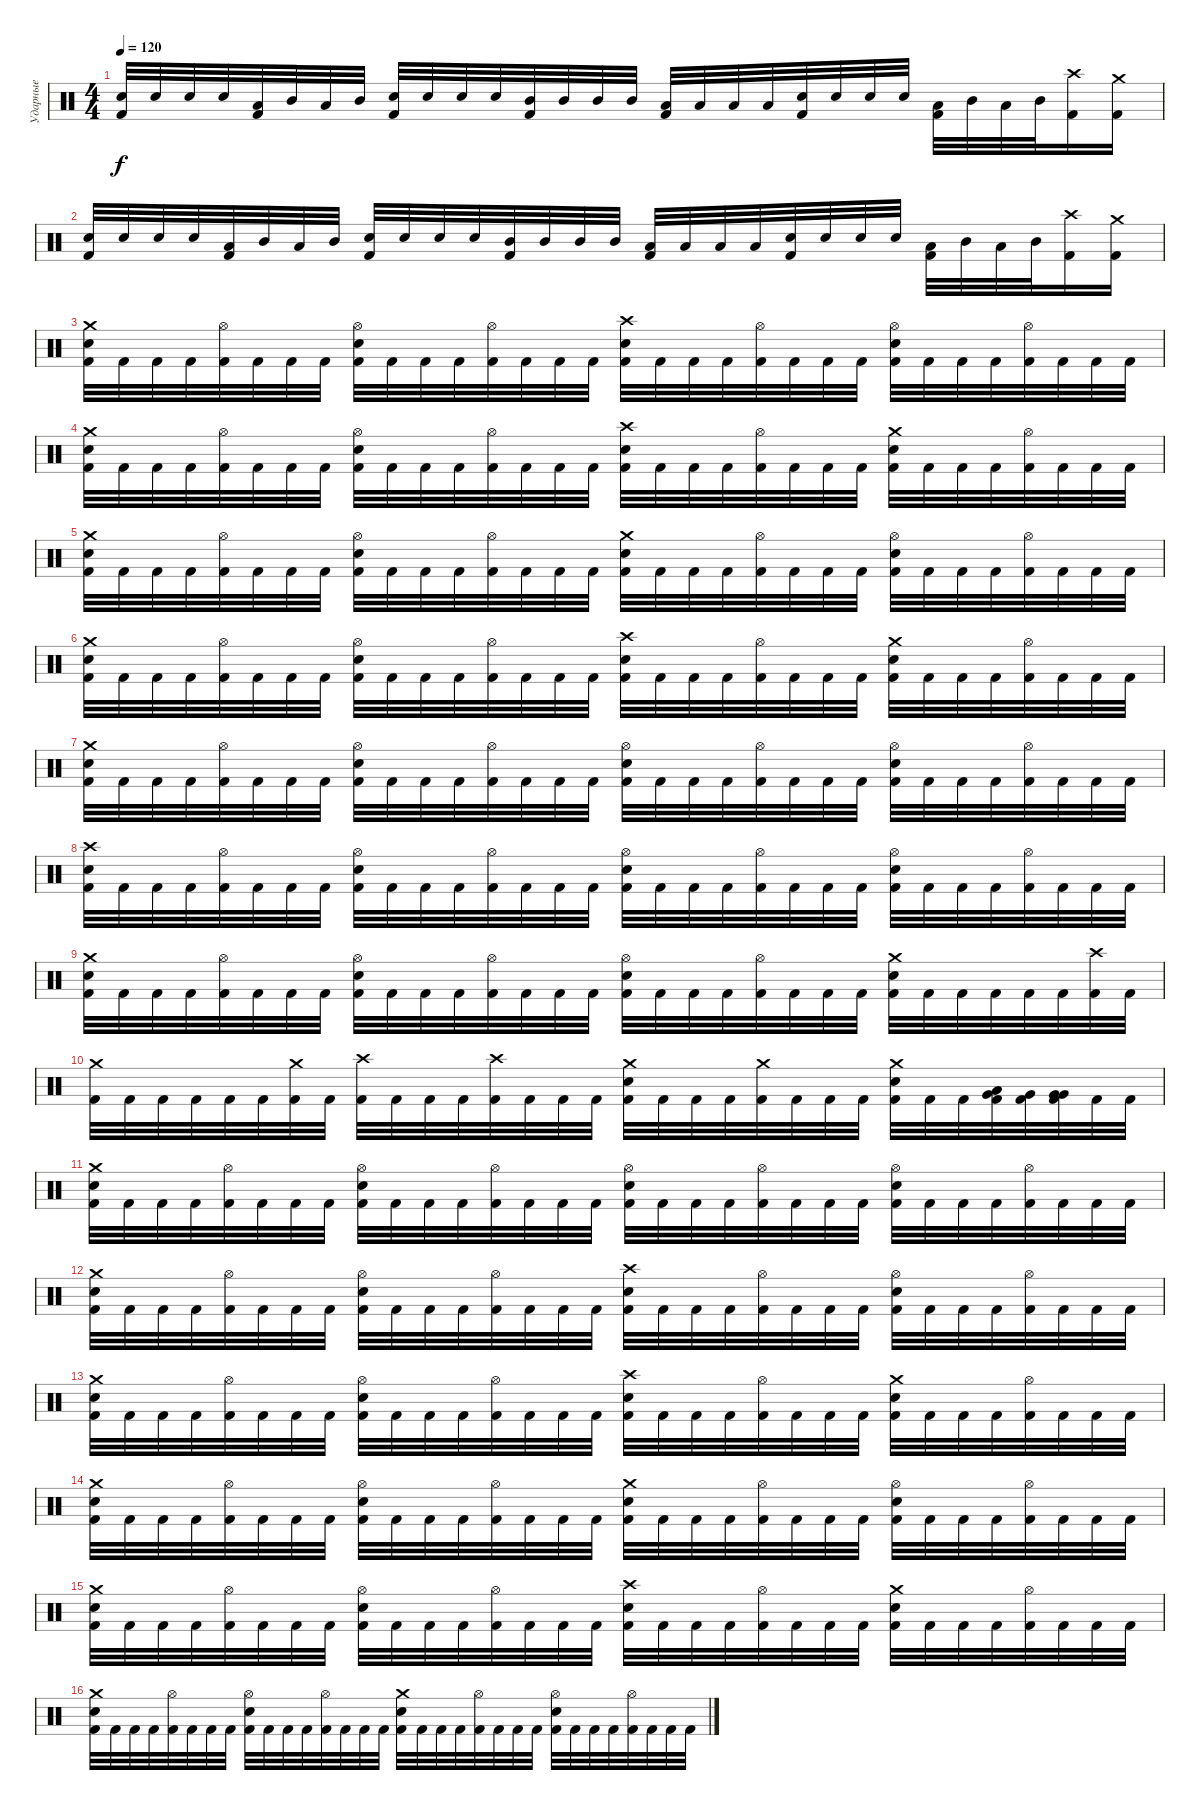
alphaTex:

\track ("Ударные" "Ударные") {instrument percussion}
\staff {score}
\articulation defaults
\ts (4 4)
\tempo 120
\clef neutral
\ks c
("Electric Snare (hit)" "Kick (hit) 2").32{dy f} "Electric Snare (hit)".32 "Electric Snare (hit)".32 "Electric Snare (hit)".32 ("Low Tom (hit)" "Kick (hit) 2").32 "Mid Tom (hit)".32 "Low Tom (hit)".32 "Mid Tom (hit)".32 ("Electric Snare (hit)" "Kick (hit) 2").32 "Electric Snare (hit)".32 "Electric Snare (hit)".32 "Electric Snare (hit)".32 ("Mid Tom (hit)" "Kick (hit) 2").32 "Mid Tom (hit)".32 "Mid Tom (hit)".32 "Mid Tom (hit)".32 ("Low Tom (hit)" "Kick (hit) 2").32 "Low Tom (hit)".32 "Low Tom (hit)".32 "Low Tom (hit)".32 ("Electric Snare (hit)" "Kick (hit) 2").32 "Electric Snare (hit)".32 "Electric Snare (hit)".32 "Electric Snare (hit)".32 ("Low Tom (hit)" "Kick (hit) 2").32 "Mid Tom (hit)".32 "Low Tom (hit)".32 "Mid Tom (hit)".32 ("Crash high (hit)" "Kick (hit) 2").16 ("Crash medium (hit)" "Kick (hit) 2").16 |
("Electric Snare (hit)" "Kick (hit) 2").32 "Electric Snare (hit)".32 "Electric Snare (hit)".32 "Electric Snare (hit)".32 ("Low Tom (hit)" "Kick (hit) 2").32 "Mid Tom (hit)".32 "Low Tom (hit)".32 "Mid Tom (hit)".32 ("Electric Snare (hit)" "Kick (hit) 2").32 "Electric Snare (hit)".32 "Electric Snare (hit)".32 "Electric Snare (hit)".32 ("Mid Tom (hit)" "Kick (hit) 2").32 "Mid Tom (hit)".32 "Mid Tom (hit)".32 "Mid Tom (hit)".32 ("Low Tom (hit)" "Kick (hit) 2").32 "Low Tom (hit)".32 "Low Tom (hit)".32 "Low Tom (hit)".32 ("Electric Snare (hit)" "Kick (hit) 2").32 "Electric Snare (hit)".32 "Electric Snare (hit)".32 "Electric Snare (hit)".32 ("Low Tom (hit)" "Kick (hit) 2").32 "Mid Tom (hit)".32 "Low Tom (hit)".32 "Mid Tom (hit)".32 ("Crash high (hit)" "Kick (hit) 2").16 ("Crash medium (hit)" "Kick (hit) 2").16 |
("Crash medium (hit)" "Electric Snare (hit)" "Kick (hit) 2").32 "Kick (hit) 2".32 "Kick (hit) 2".32 "Kick (hit) 2".32 ("Hi-Hat (open)" "Kick (hit) 2").32 "Kick (hit) 2".32 "Kick (hit) 2".32 "Kick (hit) 2".32 ("Hi-Hat (open)" "Electric Snare (hit)" "Kick (hit) 2").32 "Kick (hit) 2".32 "Kick (hit) 2".32 "Kick (hit) 2".32 ("Hi-Hat (open)" "Kick (hit) 2").32 "Kick (hit) 2".32 "Kick (hit) 2".32 "Kick (hit) 2".32 ("Crash high (hit)" "Electric Snare (hit)" "Kick (hit) 2").32 "Kick (hit) 2".32 "Kick (hit) 2".32 "Kick (hit) 2".32 ("Hi-Hat (open)" "Kick (hit) 2").32 "Kick (hit) 2".32 "Kick (hit) 2".32 "Kick (hit) 2".32 ("Hi-Hat (open)" "Electric Snare (hit)" "Kick (hit) 2").32 "Kick (hit) 2".32 "Kick (hit) 2".32 "Kick (hit) 2".32 ("Hi-Hat (open)" "Kick (hit) 2").32 "Kick (hit) 2".32 "Kick (hit) 2".32 "Kick (hit) 2".32 |
("Crash medium (hit)" "Electric Snare (hit)" "Kick (hit) 2").32 "Kick (hit) 2".32 "Kick (hit) 2".32 "Kick (hit) 2".32 ("Hi-Hat (open)" "Kick (hit) 2").32 "Kick (hit) 2".32 "Kick (hit) 2".32 "Kick (hit) 2".32 ("Hi-Hat (open)" "Electric Snare (hit)" "Kick (hit) 2").32 "Kick (hit) 2".32 "Kick (hit) 2".32 "Kick (hit) 2".32 ("Hi-Hat (open)" "Kick (hit) 2").32 "Kick (hit) 2".32 "Kick (hit) 2".32 "Kick (hit) 2".32 ("Crash high (hit)" "Electric Snare (hit)" "Kick (hit) 2").32 "Kick (hit) 2".32 "Kick (hit) 2".32 "Kick (hit) 2".32 ("Hi-Hat (open)" "Kick (hit) 2").32 "Kick (hit) 2".32 "Kick (hit) 2".32 "Kick (hit) 2".32 ("Crash medium (hit)" "Electric Snare (hit)" "Kick (hit) 2").32 "Kick (hit) 2".32 "Kick (hit) 2".32 "Kick (hit) 2".32 ("Hi-Hat (open)" "Kick (hit) 2").32 "Kick (hit) 2".32 "Kick (hit) 2".32 "Kick (hit) 2".32 |
("Crash medium (hit)" "Electric Snare (hit)" "Kick (hit) 2").32 "Kick (hit) 2".32 "Kick (hit) 2".32 "Kick (hit) 2".32 ("Hi-Hat (open)" "Kick (hit) 2").32 "Kick (hit) 2".32 "Kick (hit) 2".32 "Kick (hit) 2".32 ("Hi-Hat (open)" "Electric Snare (hit)" "Kick (hit) 2").32 "Kick (hit) 2".32 "Kick (hit) 2".32 "Kick (hit) 2".32 ("Hi-Hat (open)" "Kick (hit) 2").32 "Kick (hit) 2".32 "Kick (hit) 2".32 "Kick (hit) 2".32 ("Crash medium (hit)" "Electric Snare (hit)" "Kick (hit) 2").32 "Kick (hit) 2".32 "Kick (hit) 2".32 "Kick (hit) 2".32 ("Hi-Hat (open)" "Kick (hit) 2").32 "Kick (hit) 2".32 "Kick (hit) 2".32 "Kick (hit) 2".32 ("Hi-Hat (open)" "Electric Snare (hit)" "Kick (hit) 2").32 "Kick (hit) 2".32 "Kick (hit) 2".32 "Kick (hit) 2".32 ("Hi-Hat (open)" "Kick (hit) 2").32 "Kick (hit) 2".32 "Kick (hit) 2".32 "Kick (hit) 2".32 |
("Crash medium (hit)" "Electric Snare (hit)" "Kick (hit) 2").32 "Kick (hit) 2".32 "Kick (hit) 2".32 "Kick (hit) 2".32 ("Hi-Hat (open)" "Kick (hit) 2").32 "Kick (hit) 2".32 "Kick (hit) 2".32 "Kick (hit) 2".32 ("Hi-Hat (open)" "Electric Snare (hit)" "Kick (hit) 2").32 "Kick (hit) 2".32 "Kick (hit) 2".32 "Kick (hit) 2".32 ("Hi-Hat (open)" "Kick (hit) 2").32 "Kick (hit) 2".32 "Kick (hit) 2".32 "Kick (hit) 2".32 ("Crash high (hit)" "Electric Snare (hit)" "Kick (hit) 2").32 "Kick (hit) 2".32 "Kick (hit) 2".32 "Kick (hit) 2".32 ("Hi-Hat (open)" "Kick (hit) 2").32 "Kick (hit) 2".32 "Kick (hit) 2".32 "Kick (hit) 2".32 ("Crash medium (hit)" "Electric Snare (hit)" "Kick (hit) 2").32 "Kick (hit) 2".32 "Kick (hit) 2".32 "Kick (hit) 2".32 ("Hi-Hat (open)" "Kick (hit) 2").32 "Kick (hit) 2".32 "Kick (hit) 2".32 "Kick (hit) 2".32 |
("Crash medium (hit)" "Electric Snare (hit)" "Kick (hit) 2").32 "Kick (hit) 2".32 "Kick (hit) 2".32 "Kick (hit) 2".32 ("Hi-Hat (open)" "Kick (hit) 2").32 "Kick (hit) 2".32 "Kick (hit) 2".32 "Kick (hit) 2".32 ("Hi-Hat (open)" "Electric Snare (hit)" "Kick (hit) 2").32 "Kick (hit) 2".32 "Kick (hit) 2".32 "Kick (hit) 2".32 ("Hi-Hat (open)" "Kick (hit) 2").32 "Kick (hit) 2".32 "Kick (hit) 2".32 "Kick (hit) 2".32 ("Hi-Hat (open)" "Electric Snare (hit)" "Kick (hit) 2").32 "Kick (hit) 2".32 "Kick (hit) 2".32 "Kick (hit) 2".32 ("Hi-Hat (open)" "Kick (hit) 2").32 "Kick (hit) 2".32 "Kick (hit) 2".32 "Kick (hit) 2".32 ("Hi-Hat (open)" "Electric Snare (hit)" "Kick (hit) 2").32 "Kick (hit) 2".32 "Kick (hit) 2".32 "Kick (hit) 2".32 ("Hi-Hat (open)" "Kick (hit) 2").32 "Kick (hit) 2".32 "Kick (hit) 2".32 "Kick (hit) 2".32 |
("Crash high (hit)" "Electric Snare (hit)" "Kick (hit) 2").32 "Kick (hit) 2".32 "Kick (hit) 2".32 "Kick (hit) 2".32 ("Hi-Hat (open)" "Kick (hit) 2").32 "Kick (hit) 2".32 "Kick (hit) 2".32 "Kick (hit) 2".32 ("Hi-Hat (open)" "Electric Snare (hit)" "Kick (hit) 2").32 "Kick (hit) 2".32 "Kick (hit) 2".32 "Kick (hit) 2".32 ("Hi-Hat (open)" "Kick (hit) 2").32 "Kick (hit) 2".32 "Kick (hit) 2".32 "Kick (hit) 2".32 ("Hi-Hat (open)" "Electric Snare (hit)" "Kick (hit) 2").32 "Kick (hit) 2".32 "Kick (hit) 2".32 "Kick (hit) 2".32 ("Hi-Hat (open)" "Kick (hit) 2").32 "Kick (hit) 2".32 "Kick (hit) 2".32 "Kick (hit) 2".32 ("Hi-Hat (open)" "Electric Snare (hit)" "Kick (hit) 2").32 "Kick (hit) 2".32 "Kick (hit) 2".32 "Kick (hit) 2".32 ("Hi-Hat (open)" "Kick (hit) 2").32 "Kick (hit) 2".32 "Kick (hit) 2".32 "Kick (hit) 2".32 |
("Crash medium (hit)" "Electric Snare (hit)" "Kick (hit) 2").32 "Kick (hit) 2".32 "Kick (hit) 2".32 "Kick (hit) 2".32 ("Hi-Hat (open)" "Kick (hit) 2").32 "Kick (hit) 2".32 "Kick (hit) 2".32 "Kick (hit) 2".32 ("Hi-Hat (open)" "Electric Snare (hit)" "Kick (hit) 2").32 "Kick (hit) 2".32 "Kick (hit) 2".32 "Kick (hit) 2".32 ("Hi-Hat (open)" "Kick (hit) 2").32 "Kick (hit) 2".32 "Kick (hit) 2".32 "Kick (hit) 2".32 ("Hi-Hat (open)" "Electric Snare (hit)" "Kick (hit) 2").32 "Kick (hit) 2".32 "Kick (hit) 2".32 "Kick (hit) 2".32 ("Hi-Hat (open)" "Kick (hit) 2").32 "Kick (hit) 2".32 "Kick (hit) 2".32 "Kick (hit) 2".32 ("Crash medium (hit)" "Electric Snare (hit)" "Kick (hit) 2").32 "Kick (hit) 2".32 "Kick (hit) 2".32 "Kick (hit) 2".32 "Kick (hit) 2".32 "Kick (hit) 2".32 ("Crash high (hit)" "Kick (hit) 2").32 "Kick (hit) 2".32 |
("Crash medium (hit)" "Kick (hit) 2").32 "Kick (hit) 2".32 "Kick (hit) 2".32 "Kick (hit) 2".32 "Kick (hit) 2".32 "Kick (hit) 2".32 ("Crash medium (hit)" "Kick (hit) 2").32 "Kick (hit) 2".32 ("Crash high (hit)" "Kick (hit) 2").32 "Kick (hit) 2".32 "Kick (hit) 2".32 "Kick (hit) 2".32 ("Crash high (hit)" "Kick (hit) 2").32 "Kick (hit) 2".32 "Kick (hit) 2".32 "Kick (hit) 2".32 ("Crash medium (hit)" "Electric Snare (hit)" "Kick (hit) 2").32 "Kick (hit) 2".32 "Kick (hit) 2".32 "Kick (hit) 2".32 ("Crash medium (hit)" "Kick (hit) 2").32 "Kick (hit) 2".32 "Kick (hit) 2".32 "Kick (hit) 2".32 ("Crash medium (hit)" "Electric Snare (hit)" "Kick (hit) 2").32 "Kick (hit) 2".32 "Kick (hit) 2".32 ("Low Tom (hit)" "Very Low Tom (hit)" "Kick (hit) 2").32 ("Very Low Tom (hit)" "Kick (hit) 2").32 ("Very Low Tom (hit)" "Very Low Tom (hit)" "Kick (hit) 2").32 "Kick (hit) 2".32 "Kick (hit) 2".32 |
("Crash medium (hit)" "Electric Snare (hit)" "Kick (hit) 2").32 "Kick (hit) 2".32 "Kick (hit) 2".32 "Kick (hit) 2".32 ("Hi-Hat (open)" "Kick (hit) 2").32 "Kick (hit) 2".32 "Kick (hit) 2".32 "Kick (hit) 2".32 ("Hi-Hat (open)" "Electric Snare (hit)" "Kick (hit) 2").32 "Kick (hit) 2".32 "Kick (hit) 2".32 "Kick (hit) 2".32 ("Hi-Hat (open)" "Kick (hit) 2").32 "Kick (hit) 2".32 "Kick (hit) 2".32 "Kick (hit) 2".32 ("Hi-Hat (open)" "Electric Snare (hit)" "Kick (hit) 2").32 "Kick (hit) 2".32 "Kick (hit) 2".32 "Kick (hit) 2".32 ("Hi-Hat (open)" "Kick (hit) 2").32 "Kick (hit) 2".32 "Kick (hit) 2".32 "Kick (hit) 2".32 ("Hi-Hat (open)" "Electric Snare (hit)" "Kick (hit) 2").32 "Kick (hit) 2".32 "Kick (hit) 2".32 "Kick (hit) 2".32 ("Hi-Hat (open)" "Kick (hit) 2").32 "Kick (hit) 2".32 "Kick (hit) 2".32 "Kick (hit) 2".32 |
("Crash medium (hit)" "Electric Snare (hit)" "Kick (hit) 2").32 "Kick (hit) 2".32 "Kick (hit) 2".32 "Kick (hit) 2".32 ("Hi-Hat (open)" "Kick (hit) 2").32 "Kick (hit) 2".32 "Kick (hit) 2".32 "Kick (hit) 2".32 ("Hi-Hat (open)" "Electric Snare (hit)" "Kick (hit) 2").32 "Kick (hit) 2".32 "Kick (hit) 2".32 "Kick (hit) 2".32 ("Hi-Hat (open)" "Kick (hit) 2").32 "Kick (hit) 2".32 "Kick (hit) 2".32 "Kick (hit) 2".32 ("Crash high (hit)" "Electric Snare (hit)" "Kick (hit) 2").32 "Kick (hit) 2".32 "Kick (hit) 2".32 "Kick (hit) 2".32 ("Hi-Hat (open)" "Kick (hit) 2").32 "Kick (hit) 2".32 "Kick (hit) 2".32 "Kick (hit) 2".32 ("Hi-Hat (open)" "Electric Snare (hit)" "Kick (hit) 2").32 "Kick (hit) 2".32 "Kick (hit) 2".32 "Kick (hit) 2".32 ("Hi-Hat (open)" "Kick (hit) 2").32 "Kick (hit) 2".32 "Kick (hit) 2".32 "Kick (hit) 2".32 |
("Crash medium (hit)" "Electric Snare (hit)" "Kick (hit) 2").32 "Kick (hit) 2".32 "Kick (hit) 2".32 "Kick (hit) 2".32 ("Hi-Hat (open)" "Kick (hit) 2").32 "Kick (hit) 2".32 "Kick (hit) 2".32 "Kick (hit) 2".32 ("Hi-Hat (open)" "Electric Snare (hit)" "Kick (hit) 2").32 "Kick (hit) 2".32 "Kick (hit) 2".32 "Kick (hit) 2".32 ("Hi-Hat (open)" "Kick (hit) 2").32 "Kick (hit) 2".32 "Kick (hit) 2".32 "Kick (hit) 2".32 ("Crash high (hit)" "Electric Snare (hit)" "Kick (hit) 2").32 "Kick (hit) 2".32 "Kick (hit) 2".32 "Kick (hit) 2".32 ("Hi-Hat (open)" "Kick (hit) 2").32 "Kick (hit) 2".32 "Kick (hit) 2".32 "Kick (hit) 2".32 ("Crash medium (hit)" "Electric Snare (hit)" "Kick (hit) 2").32 "Kick (hit) 2".32 "Kick (hit) 2".32 "Kick (hit) 2".32 ("Hi-Hat (open)" "Kick (hit) 2").32 "Kick (hit) 2".32 "Kick (hit) 2".32 "Kick (hit) 2".32 |
("Crash medium (hit)" "Electric Snare (hit)" "Kick (hit) 2").32 "Kick (hit) 2".32 "Kick (hit) 2".32 "Kick (hit) 2".32 ("Hi-Hat (open)" "Kick (hit) 2").32 "Kick (hit) 2".32 "Kick (hit) 2".32 "Kick (hit) 2".32 ("Hi-Hat (open)" "Electric Snare (hit)" "Kick (hit) 2").32 "Kick (hit) 2".32 "Kick (hit) 2".32 "Kick (hit) 2".32 ("Hi-Hat (open)" "Kick (hit) 2").32 "Kick (hit) 2".32 "Kick (hit) 2".32 "Kick (hit) 2".32 ("Crash medium (hit)" "Electric Snare (hit)" "Kick (hit) 2").32 "Kick (hit) 2".32 "Kick (hit) 2".32 "Kick (hit) 2".32 ("Hi-Hat (open)" "Kick (hit) 2").32 "Kick (hit) 2".32 "Kick (hit) 2".32 "Kick (hit) 2".32 ("Hi-Hat (open)" "Electric Snare (hit)" "Kick (hit) 2").32 "Kick (hit) 2".32 "Kick (hit) 2".32 "Kick (hit) 2".32 ("Hi-Hat (open)" "Kick (hit) 2").32 "Kick (hit) 2".32 "Kick (hit) 2".32 "Kick (hit) 2".32 |
("Crash medium (hit)" "Electric Snare (hit)" "Kick (hit) 2").32 "Kick (hit) 2".32 "Kick (hit) 2".32 "Kick (hit) 2".32 ("Hi-Hat (open)" "Kick (hit) 2").32 "Kick (hit) 2".32 "Kick (hit) 2".32 "Kick (hit) 2".32 ("Hi-Hat (open)" "Electric Snare (hit)" "Kick (hit) 2").32 "Kick (hit) 2".32 "Kick (hit) 2".32 "Kick (hit) 2".32 ("Hi-Hat (open)" "Kick (hit) 2").32 "Kick (hit) 2".32 "Kick (hit) 2".32 "Kick (hit) 2".32 ("Crash high (hit)" "Electric Snare (hit)" "Kick (hit) 2").32 "Kick (hit) 2".32 "Kick (hit) 2".32 "Kick (hit) 2".32 ("Hi-Hat (open)" "Kick (hit) 2").32 "Kick (hit) 2".32 "Kick (hit) 2".32 "Kick (hit) 2".32 ("Crash medium (hit)" "Electric Snare (hit)" "Kick (hit) 2").32 "Kick (hit) 2".32 "Kick (hit) 2".32 "Kick (hit) 2".32 ("Hi-Hat (open)" "Kick (hit) 2").32 "Kick (hit) 2".32 "Kick (hit) 2".32 "Kick (hit) 2".32 |
("Crash medium (hit)" "Electric Snare (hit)" "Kick (hit) 2").32 "Kick (hit) 2".32 "Kick (hit) 2".32 "Kick (hit) 2".32 ("Hi-Hat (open)" "Kick (hit) 2").32 "Kick (hit) 2".32 "Kick (hit) 2".32 "Kick (hit) 2".32 ("Hi-Hat (open)" "Electric Snare (hit)" "Kick (hit) 2").32 "Kick (hit) 2".32 "Kick (hit) 2".32 "Kick (hit) 2".32 ("Hi-Hat (open)" "Kick (hit) 2").32 "Kick (hit) 2".32 "Kick (hit) 2".32 "Kick (hit) 2".32 ("Crash medium (hit)" "Electric Snare (hit)" "Kick (hit) 2").32 "Kick (hit) 2".32 "Kick (hit) 2".32 "Kick (hit) 2".32 ("Hi-Hat (open)" "Kick (hit) 2").32 "Kick (hit) 2".32 "Kick (hit) 2".32 "Kick (hit) 2".32 ("Hi-Hat (open)" "Electric Snare (hit)" "Kick (hit) 2").32 "Kick (hit) 2".32 "Kick (hit) 2".32 "Kick (hit) 2".32 ("Hi-Hat (open)" "Kick (hit) 2").32 "Kick (hit) 2".32 "Kick (hit) 2".32 "Kick (hit) 2".32
